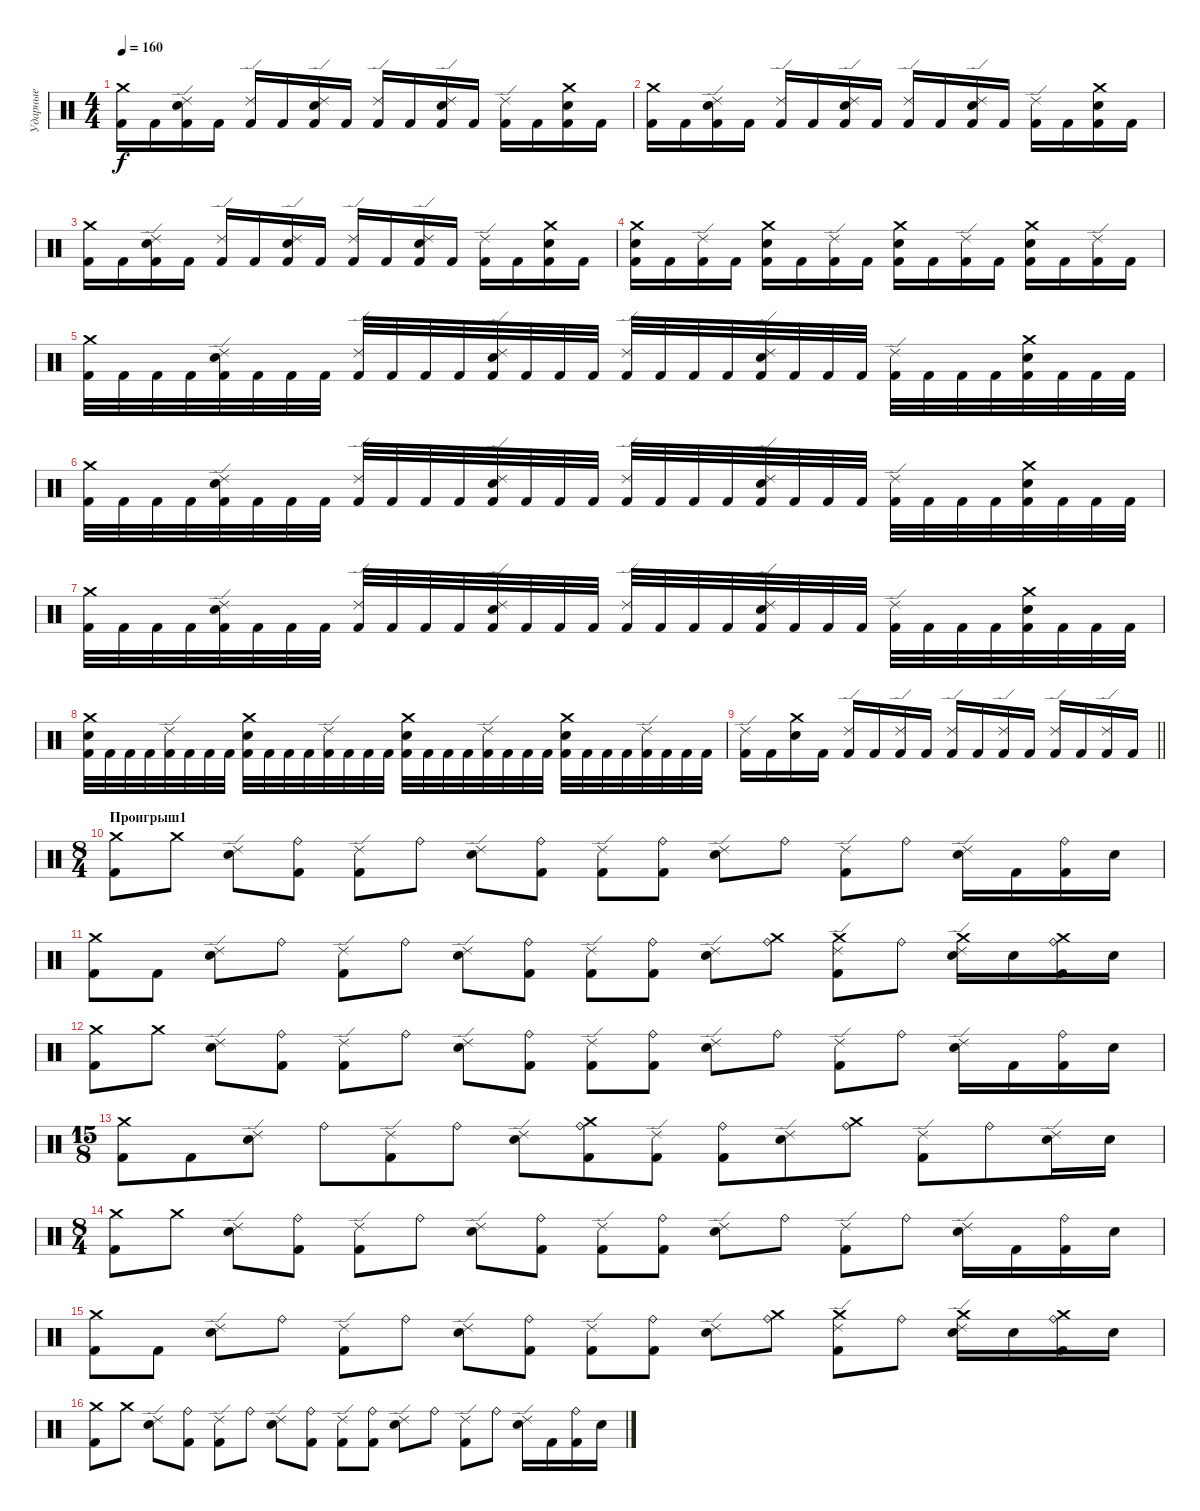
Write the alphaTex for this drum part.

\track ("Ударные" "Ударные") {instrument percussion}
\staff {score}
\articulation defaults
\ts (4 4)
\tempo 160
\clef neutral
\ks c
("Crash medium (hit)" "Kick (hit) 2").16{dy f} "Kick (hit) 2".16 ("Ride (edge) 2" "Kick (hit) 2" "Electric Snare (hit)").16 "Kick (hit) 2".16 ("Ride (edge) 2" "Kick (hit) 2").16 "Kick (hit) 2".16 ("Ride (edge) 2" "Kick (hit) 2" "Electric Snare (hit)").16 "Kick (hit) 2".16 ("Ride (edge) 2" "Kick (hit) 2").16 "Kick (hit) 2".16 ("Ride (edge) 2" "Kick (hit) 2" "Electric Snare (hit)").16 "Kick (hit) 2".16 ("Ride (edge) 2" "Kick (hit) 2").16 "Kick (hit) 2".16 ("Crash medium (hit)" "Kick (hit) 2" "Electric Snare (hit)").16 "Kick (hit) 2".16 |
("Crash medium (hit)" "Kick (hit) 2").16 "Kick (hit) 2".16 ("Ride (edge) 2" "Kick (hit) 2" "Electric Snare (hit)").16 "Kick (hit) 2".16 ("Ride (edge) 2" "Kick (hit) 2").16 "Kick (hit) 2".16 ("Ride (edge) 2" "Kick (hit) 2" "Electric Snare (hit)").16 "Kick (hit) 2".16 ("Ride (edge) 2" "Kick (hit) 2").16 "Kick (hit) 2".16 ("Ride (edge) 2" "Kick (hit) 2" "Electric Snare (hit)").16 "Kick (hit) 2".16 ("Ride (edge) 2" "Kick (hit) 2").16 "Kick (hit) 2".16 ("Crash medium (hit)" "Kick (hit) 2" "Electric Snare (hit)").16 "Kick (hit) 2".16 |
("Crash medium (hit)" "Kick (hit) 2").16 "Kick (hit) 2".16 ("Ride (edge) 2" "Kick (hit) 2" "Electric Snare (hit)").16 "Kick (hit) 2".16 ("Ride (edge) 2" "Kick (hit) 2").16 "Kick (hit) 2".16 ("Ride (edge) 2" "Kick (hit) 2" "Electric Snare (hit)").16 "Kick (hit) 2".16 ("Ride (edge) 2" "Kick (hit) 2").16 "Kick (hit) 2".16 ("Ride (edge) 2" "Kick (hit) 2" "Electric Snare (hit)").16 "Kick (hit) 2".16 ("Ride (edge) 2" "Kick (hit) 2").16 "Kick (hit) 2".16 ("Crash medium (hit)" "Kick (hit) 2" "Electric Snare (hit)").16 "Kick (hit) 2".16 |
("Crash medium (hit)" "Kick (hit) 2" "Electric Snare (hit)").16 "Kick (hit) 2".16 ("Ride (edge) 2" "Kick (hit) 2").16 "Kick (hit) 2".16 ("Crash medium (hit)" "Kick (hit) 2" "Electric Snare (hit)").16 "Kick (hit) 2".16 ("Ride (edge) 2" "Kick (hit) 2").16 "Kick (hit) 2".16 ("Crash medium (hit)" "Kick (hit) 2" "Electric Snare (hit)").16 "Kick (hit) 2".16 ("Ride (edge) 2" "Kick (hit) 2").16 "Kick (hit) 2".16 ("Crash medium (hit)" "Kick (hit) 2" "Electric Snare (hit)").16 "Kick (hit) 2".16 ("Ride (edge) 2" "Kick (hit) 2").16 "Kick (hit) 2".16 |
("Crash medium (hit)" "Kick (hit) 2").32 "Kick (hit) 2".32 "Kick (hit) 2".32 "Kick (hit) 2".32 ("Ride (edge) 2" "Kick (hit) 2" "Electric Snare (hit)").32 "Kick (hit) 2".32 "Kick (hit) 2".32 "Kick (hit) 2".32 ("Ride (edge) 2" "Kick (hit) 2").32 "Kick (hit) 2".32 "Kick (hit) 2".32 "Kick (hit) 2".32 ("Ride (edge) 2" "Kick (hit) 2" "Electric Snare (hit)").32 "Kick (hit) 2".32 "Kick (hit) 2".32 "Kick (hit) 2".32 ("Ride (edge) 2" "Kick (hit) 2").32 "Kick (hit) 2".32 "Kick (hit) 2".32 "Kick (hit) 2".32 ("Ride (edge) 2" "Kick (hit) 2" "Electric Snare (hit)").32 "Kick (hit) 2".32 "Kick (hit) 2".32 "Kick (hit) 2".32 ("Ride (edge) 2" "Kick (hit) 2").32 "Kick (hit) 2".32 "Kick (hit) 2".32 "Kick (hit) 2".32 ("Crash medium (hit)" "Kick (hit) 2" "Electric Snare (hit)").32 "Kick (hit) 2".32 "Kick (hit) 2".32 "Kick (hit) 2".32 |
("Crash medium (hit)" "Kick (hit) 2").32 "Kick (hit) 2".32 "Kick (hit) 2".32 "Kick (hit) 2".32 ("Ride (edge) 2" "Kick (hit) 2" "Electric Snare (hit)").32 "Kick (hit) 2".32 "Kick (hit) 2".32 "Kick (hit) 2".32 ("Ride (edge) 2" "Kick (hit) 2").32 "Kick (hit) 2".32 "Kick (hit) 2".32 "Kick (hit) 2".32 ("Ride (edge) 2" "Kick (hit) 2" "Electric Snare (hit)").32 "Kick (hit) 2".32 "Kick (hit) 2".32 "Kick (hit) 2".32 ("Ride (edge) 2" "Kick (hit) 2").32 "Kick (hit) 2".32 "Kick (hit) 2".32 "Kick (hit) 2".32 ("Ride (edge) 2" "Kick (hit) 2" "Electric Snare (hit)").32 "Kick (hit) 2".32 "Kick (hit) 2".32 "Kick (hit) 2".32 ("Ride (edge) 2" "Kick (hit) 2").32 "Kick (hit) 2".32 "Kick (hit) 2".32 "Kick (hit) 2".32 ("Crash medium (hit)" "Kick (hit) 2" "Electric Snare (hit)").32 "Kick (hit) 2".32 "Kick (hit) 2".32 "Kick (hit) 2".32 |
("Crash medium (hit)" "Kick (hit) 2").32 "Kick (hit) 2".32 "Kick (hit) 2".32 "Kick (hit) 2".32 ("Ride (edge) 2" "Kick (hit) 2" "Electric Snare (hit)").32 "Kick (hit) 2".32 "Kick (hit) 2".32 "Kick (hit) 2".32 ("Ride (edge) 2" "Kick (hit) 2").32 "Kick (hit) 2".32 "Kick (hit) 2".32 "Kick (hit) 2".32 ("Ride (edge) 2" "Kick (hit) 2" "Electric Snare (hit)").32 "Kick (hit) 2".32 "Kick (hit) 2".32 "Kick (hit) 2".32 ("Ride (edge) 2" "Kick (hit) 2").32 "Kick (hit) 2".32 "Kick (hit) 2".32 "Kick (hit) 2".32 ("Ride (edge) 2" "Kick (hit) 2" "Electric Snare (hit)").32 "Kick (hit) 2".32 "Kick (hit) 2".32 "Kick (hit) 2".32 ("Ride (edge) 2" "Kick (hit) 2").32 "Kick (hit) 2".32 "Kick (hit) 2".32 "Kick (hit) 2".32 ("Crash medium (hit)" "Kick (hit) 2" "Electric Snare (hit)").32 "Kick (hit) 2".32 "Kick (hit) 2".32 "Kick (hit) 2".32 |
("Crash medium (hit)" "Kick (hit) 2" "Electric Snare (hit)").32 "Kick (hit) 2".32 "Kick (hit) 2".32 "Kick (hit) 2".32 ("Ride (edge) 2" "Kick (hit) 2").32 "Kick (hit) 2".32 "Kick (hit) 2".32 "Kick (hit) 2".32 ("Crash medium (hit)" "Kick (hit) 2" "Electric Snare (hit)").32 "Kick (hit) 2".32 "Kick (hit) 2".32 "Kick (hit) 2".32 ("Ride (edge) 2" "Kick (hit) 2").32 "Kick (hit) 2".32 "Kick (hit) 2".32 "Kick (hit) 2".32 ("Crash medium (hit)" "Kick (hit) 2" "Electric Snare (hit)").32 "Kick (hit) 2".32 "Kick (hit) 2".32 "Kick (hit) 2".32 ("Ride (edge) 2" "Kick (hit) 2").32 "Kick (hit) 2".32 "Kick (hit) 2".32 "Kick (hit) 2".32 ("Crash medium (hit)" "Kick (hit) 2" "Electric Snare (hit)").32 "Kick (hit) 2".32 "Kick (hit) 2".32 "Kick (hit) 2".32 ("Ride (edge) 2" "Kick (hit) 2").32 "Kick (hit) 2".32 "Kick (hit) 2".32 "Kick (hit) 2".32 |
\barLineRight lightlight
("Ride (edge) 2" "Kick (hit) 2").16 "Kick (hit) 2".16 ("Crash medium (hit)" "Electric Snare (hit)").16 "Kick (hit) 2".16 ("Ride (edge) 2" "Kick (hit) 2").16 "Kick (hit) 2".16 ("Ride (edge) 2" "Kick (hit) 2").16 "Kick (hit) 2".16 ("Ride (edge) 2" "Kick (hit) 2").16 "Kick (hit) 2".16 ("Ride (edge) 2" "Kick (hit) 2").16 "Kick (hit) 2".16 ("Ride (edge) 2" "Kick (hit) 2").16 "Kick (hit) 2".16 ("Ride (edge) 2" "Kick (hit) 2").16 "Kick (hit) 2".16 |
\ts (8 4)
\section ("" "Проигрыш1")
("Crash medium (hit)" "Kick (hit) 2").8 "Crash medium (hit)".8 ("Ride (edge) 2" "Electric Snare (hit)").8 ("Ride (bell)" "Kick (hit) 2").8 ("Ride (edge) 2" "Kick (hit) 2").8 "Ride (bell)".8 ("Ride (edge) 2" "Electric Snare (hit)").8 ("Ride (bell)" "Kick (hit) 2").8 ("Ride (edge) 2" "Kick (hit) 2").8 ("Ride (bell)" "Kick (hit) 2").8 ("Ride (edge) 2" "Electric Snare (hit)").8 "Ride (bell)".8 ("Ride (edge) 2" "Kick (hit) 2").8 "Ride (bell)".8 ("Ride (edge) 2" "Electric Snare (hit)").16 "Kick (hit) 2".16 ("Ride (bell)" "Kick (hit) 2").16 "Electric Snare (hit)".16 |
("Crash medium (hit)" "Kick (hit) 2").8 "Kick (hit) 2".8 ("Ride (edge) 2" "Electric Snare (hit)").8 "Ride (bell)".8 ("Ride (edge) 2" "Kick (hit) 2").8 "Ride (bell)".8 ("Ride (edge) 2" "Electric Snare (hit)").8 ("Ride (bell)" "Kick (hit) 2").8 ("Ride (edge) 2" "Kick (hit) 2").8 ("Ride (bell)" "Kick (hit) 2").8 ("Ride (edge) 2" "Electric Snare (hit)").8 ("Crash medium (hit)" "Ride (bell)").8 ("Crash medium (hit)" "Ride (edge) 2" "Kick (hit) 2").8 "Ride (bell)".8 ("Crash medium (hit)" "Ride (edge) 2" "Electric Snare (hit)").16 "Electric Snare (hit)".16 ("Crash medium (hit)" "Ride (bell)" "Kick (hit) 2").16 "Electric Snare (hit)".16 |
("Crash medium (hit)" "Kick (hit) 2").8 "Crash medium (hit)".8 ("Ride (edge) 2" "Electric Snare (hit)").8 ("Ride (bell)" "Kick (hit) 2").8 ("Ride (edge) 2" "Kick (hit) 2").8 "Ride (bell)".8 ("Ride (edge) 2" "Electric Snare (hit)").8 ("Ride (bell)" "Kick (hit) 2").8 ("Ride (edge) 2" "Kick (hit) 2").8 ("Ride (bell)" "Kick (hit) 2").8 ("Ride (edge) 2" "Electric Snare (hit)").8 "Ride (bell)".8 ("Ride (edge) 2" "Kick (hit) 2").8 "Ride (bell)".8 ("Ride (edge) 2" "Electric Snare (hit)").16 "Kick (hit) 2".16 ("Ride (bell)" "Kick (hit) 2").16 "Electric Snare (hit)".16 |
\ts (15 8)
("Crash medium (hit)" "Kick (hit) 2").8 "Kick (hit) 2".8 ("Ride (edge) 2" "Electric Snare (hit)").8 "Ride (bell)".8 ("Ride (edge) 2" "Kick (hit) 2").8 "Ride (bell)".8 ("Ride (edge) 2" "Electric Snare (hit)").8 ("Crash medium (hit)" "Ride (bell)" "Kick (hit) 2").8 ("Ride (edge) 2" "Kick (hit) 2").8 ("Ride (bell)" "Kick (hit) 2").8 ("Ride (edge) 2" "Electric Snare (hit)").8 ("Crash medium (hit)" "Ride (bell)").8 ("Ride (edge) 2" "Kick (hit) 2").8 "Ride (bell)".8 ("Ride (edge) 2" "Electric Snare (hit)").16 "Electric Snare (hit)".16 |
\ts (8 4)
("Crash medium (hit)" "Kick (hit) 2").8 "Crash medium (hit)".8 ("Ride (edge) 2" "Electric Snare (hit)").8 ("Ride (bell)" "Kick (hit) 2").8 ("Ride (edge) 2" "Kick (hit) 2").8 "Ride (bell)".8 ("Ride (edge) 2" "Electric Snare (hit)").8 ("Ride (bell)" "Kick (hit) 2").8 ("Ride (edge) 2" "Kick (hit) 2").8 ("Ride (bell)" "Kick (hit) 2").8 ("Ride (edge) 2" "Electric Snare (hit)").8 "Ride (bell)".8 ("Ride (edge) 2" "Kick (hit) 2").8 "Ride (bell)".8 ("Ride (edge) 2" "Electric Snare (hit)").16 "Kick (hit) 2".16 ("Ride (bell)" "Kick (hit) 2").16 "Electric Snare (hit)".16 |
("Crash medium (hit)" "Kick (hit) 2").8 "Kick (hit) 2".8 ("Ride (edge) 2" "Electric Snare (hit)").8 "Ride (bell)".8 ("Ride (edge) 2" "Kick (hit) 2").8 "Ride (bell)".8 ("Ride (edge) 2" "Electric Snare (hit)").8 ("Ride (bell)" "Kick (hit) 2").8 ("Ride (edge) 2" "Kick (hit) 2").8 ("Ride (bell)" "Kick (hit) 2").8 ("Ride (edge) 2" "Electric Snare (hit)").8 ("Crash medium (hit)" "Ride (bell)").8 ("Crash medium (hit)" "Ride (edge) 2" "Kick (hit) 2").8 "Ride (bell)".8 ("Crash medium (hit)" "Ride (edge) 2" "Electric Snare (hit)").16 "Electric Snare (hit)".16 ("Crash medium (hit)" "Ride (bell)" "Kick (hit) 2").16 "Electric Snare (hit)".16 |
("Crash medium (hit)" "Kick (hit) 2").8 "Crash medium (hit)".8 ("Ride (edge) 2" "Electric Snare (hit)").8 ("Ride (bell)" "Kick (hit) 2").8 ("Ride (edge) 2" "Kick (hit) 2").8 "Ride (bell)".8 ("Ride (edge) 2" "Electric Snare (hit)").8 ("Ride (bell)" "Kick (hit) 2").8 ("Ride (edge) 2" "Kick (hit) 2").8 ("Ride (bell)" "Kick (hit) 2").8 ("Ride (edge) 2" "Electric Snare (hit)").8 "Ride (bell)".8 ("Ride (edge) 2" "Kick (hit) 2").8 "Ride (bell)".8 ("Ride (edge) 2" "Electric Snare (hit)").16 "Kick (hit) 2".16 ("Ride (bell)" "Kick (hit) 2").16 "Electric Snare (hit)".16
